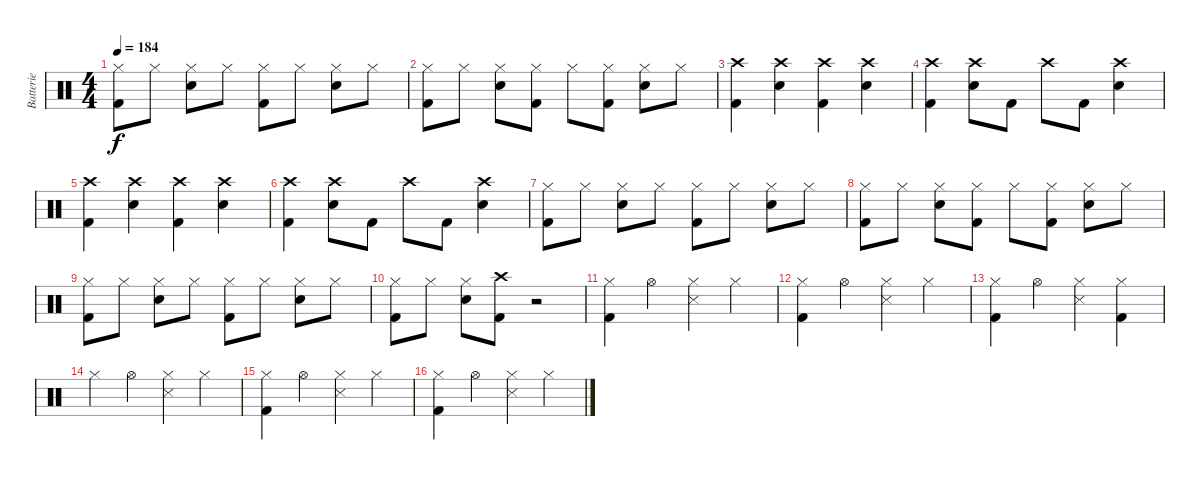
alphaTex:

\track ("Batterie" "Batterie") {instrument percussion}
\staff {score}
\articulation defaults
\ts (4 4)
\tempo 184
\clef neutral
\ks c
("Hi-Hat (closed)" "Kick (hit) 2").8{dy f} "Hi-Hat (closed)".8 ("Hi-Hat (closed)" "Snare (hit) 2").8 "Hi-Hat (closed)".8 ("Hi-Hat (closed)" "Kick (hit) 2").8 "Hi-Hat (closed)".8 ("Hi-Hat (closed)" "Snare (hit) 2").8 "Hi-Hat (closed)".8 |
("Hi-Hat (closed)" "Kick (hit) 2").8 "Hi-Hat (closed)".8 ("Hi-Hat (closed)" "Snare (hit) 2").8 ("Hi-Hat (closed)" "Kick (hit) 2").8 "Hi-Hat (closed)".8 ("Hi-Hat (closed)" "Kick (hit) 2").8 ("Hi-Hat (closed)" "Snare (hit) 2").8 "Hi-Hat (closed)".8 |
("Crash high (hit)" "Kick (hit) 2").4 ("Crash high (hit)" "Snare (hit) 2").4 ("Crash high (hit)" "Kick (hit) 2").4 ("Crash high (hit)" "Snare (hit) 2").4 |
("Crash high (hit)" "Kick (hit) 2").4 ("Crash high (hit)" "Snare (hit) 2").8 "Kick (hit) 2".8 "Crash high (hit)".8 "Kick (hit) 2".8 ("Crash high (hit)" "Snare (hit) 2").4 |
("Crash high (hit)" "Kick (hit) 2").4 ("Crash high (hit)" "Snare (hit) 2").4 ("Crash high (hit)" "Kick (hit) 2").4 ("Crash high (hit)" "Snare (hit) 2").4 |
("Crash high (hit)" "Kick (hit) 2").4 ("Crash high (hit)" "Snare (hit) 2").8 "Kick (hit) 2".8 "Crash high (hit)".8 "Kick (hit) 2".8 ("Crash high (hit)" "Snare (hit) 2").4 |
("Hi-Hat (closed)" "Kick (hit) 2").8 "Hi-Hat (closed)".8 ("Hi-Hat (closed)" "Snare (hit) 2").8 "Hi-Hat (closed)".8 ("Hi-Hat (closed)" "Kick (hit) 2").8 "Hi-Hat (closed)".8 ("Hi-Hat (closed)" "Snare (hit) 2").8 "Hi-Hat (closed)".8 |
("Hi-Hat (closed)" "Kick (hit) 2").8 "Hi-Hat (closed)".8 ("Hi-Hat (closed)" "Snare (hit) 2").8 ("Hi-Hat (closed)" "Kick (hit) 2").8 "Hi-Hat (closed)".8 ("Hi-Hat (closed)" "Kick (hit) 2").8 ("Hi-Hat (closed)" "Snare (hit) 2").8 "Hi-Hat (closed)".8 |
("Hi-Hat (closed)" "Kick (hit) 2").8 "Hi-Hat (closed)".8 ("Hi-Hat (closed)" "Snare (hit) 2").8 "Hi-Hat (closed)".8 ("Hi-Hat (closed)" "Kick (hit) 2").8 "Hi-Hat (closed)".8 ("Hi-Hat (closed)" "Snare (hit) 2").8 "Hi-Hat (closed)".8 |
("Hi-Hat (closed)" "Kick (hit) 2").8 "Hi-Hat (closed)".8 ("Hi-Hat (closed)" "Snare (hit) 2").8 ("Crash high (hit)" "Kick (hit) 2").8 r.2 |
("Hi-Hat (closed)" "Kick (hit) 2").4 "Hi-Hat (open)".4 ("Hi-Hat (closed)" "Metronome (hit)").4 "Hi-Hat (closed)".4 |
("Hi-Hat (closed)" "Kick (hit) 2").4 "Hi-Hat (open)".4 ("Hi-Hat (closed)" "Metronome (hit)").4 "Hi-Hat (closed)".4 |
("Hi-Hat (closed)" "Kick (hit) 2").4 "Hi-Hat (open)".4 ("Hi-Hat (closed)" "Metronome (hit)").4 ("Hi-Hat (closed)" "Kick (hit) 2").4 |
"Hi-Hat (closed)".4 "Hi-Hat (open)".4 ("Hi-Hat (closed)" "Metronome (hit)").4 "Hi-Hat (closed)".4 |
("Hi-Hat (closed)" "Kick (hit) 2").4 "Hi-Hat (open)".4 ("Hi-Hat (closed)" "Metronome (hit)").4 "Hi-Hat (closed)".4 |
("Hi-Hat (closed)" "Kick (hit) 2").4 "Hi-Hat (open)".4 ("Hi-Hat (closed)" "Metronome (hit)").4 "Hi-Hat (closed)".4
